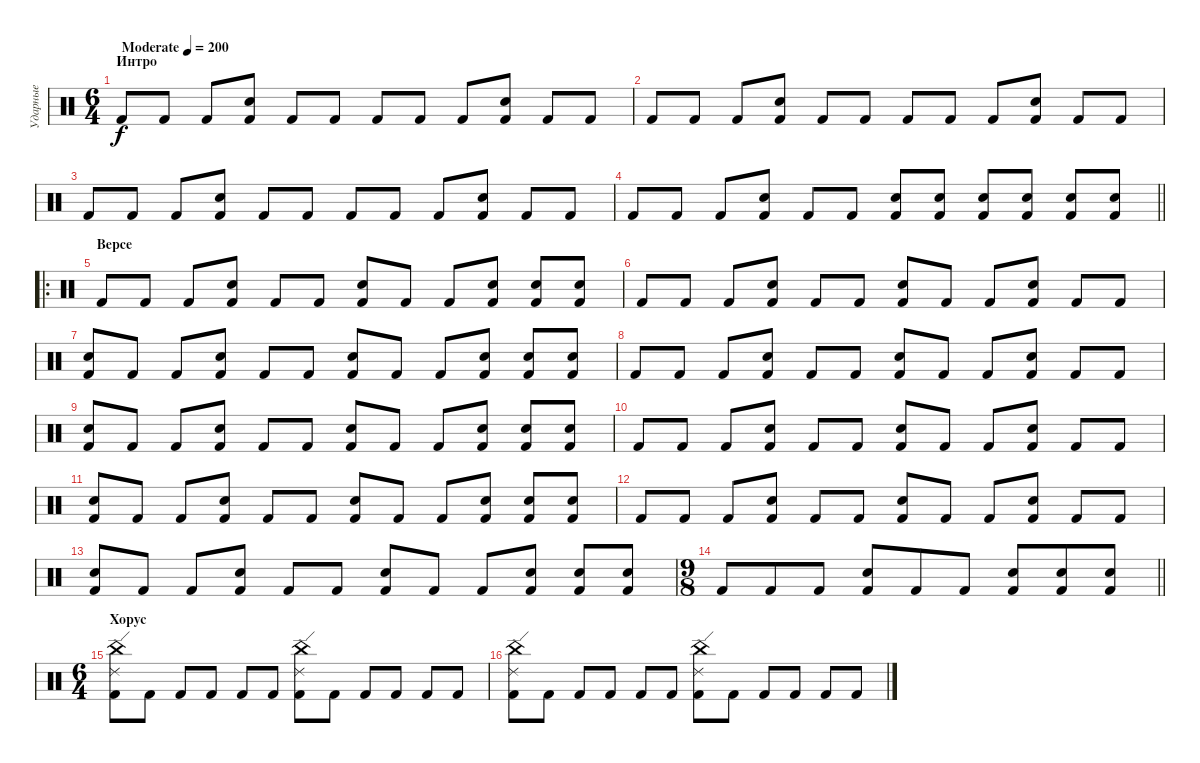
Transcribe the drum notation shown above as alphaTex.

\track ("Ударные" "Ударные") {instrument percussion}
\staff {score}
\articulation defaults
\ts (6 4)
\section ("" "Интро")
\tempo (200 "Moderate")
\clef neutral
\ks c "Kick (hit) 2".8{dy f} "Kick (hit) 2".8 "Kick (hit) 2".8
("Electric Snare (hit)" "Kick (hit) 2").8 "Kick (hit) 2".8 "Kick (hit) 2".8 "Kick (hit) 2".8 "Kick (hit) 2".8 "Kick (hit) 2".8 ("Electric Snare (hit)" "Kick (hit) 2").8 "Kick (hit) 2".8 "Kick (hit) 2".8 |
"Kick (hit) 2".8 "Kick (hit) 2".8 "Kick (hit) 2".8 ("Electric Snare (hit)" "Kick (hit) 2").8 "Kick (hit) 2".8 "Kick (hit) 2".8 "Kick (hit) 2".8 "Kick (hit) 2".8 "Kick (hit) 2".8 ("Electric Snare (hit)" "Kick (hit) 2").8 "Kick (hit) 2".8 "Kick (hit) 2".8 |
"Kick (hit) 2".8 "Kick (hit) 2".8 "Kick (hit) 2".8 ("Electric Snare (hit)" "Kick (hit) 2").8 "Kick (hit) 2".8 "Kick (hit) 2".8 "Kick (hit) 2".8 "Kick (hit) 2".8 "Kick (hit) 2".8 ("Electric Snare (hit)" "Kick (hit) 2").8 "Kick (hit) 2".8 "Kick (hit) 2".8 |
\barLineRight lightlight "Kick (hit) 2".8 "Kick (hit) 2".8 "Kick (hit) 2".8
("Electric Snare (hit)" "Kick (hit) 2").8 "Kick (hit) 2".8 "Kick (hit) 2".8 ("Electric Snare (hit)" "Kick (hit) 2").8 ("Electric Snare (hit)" "Kick (hit) 2").8 ("Electric Snare (hit)" "Kick (hit) 2").8 ("Electric Snare (hit)" "Kick (hit) 2").8 ("Electric Snare (hit)" "Kick (hit) 2").8 ("Electric Snare (hit)" "Kick (hit) 2").8 |
\ro
\section ("" "Версе")
"Kick (hit) 2".8 "Kick (hit) 2".8 "Kick (hit) 2".8 ("Electric Snare (hit)" "Kick (hit) 2").8 "Kick (hit) 2".8 "Kick (hit) 2".8 ("Electric Snare (hit)" "Kick (hit) 2").8 "Kick (hit) 2".8 "Kick (hit) 2".8 ("Electric Snare (hit)" "Kick (hit) 2").8 ("Electric Snare (hit)" "Kick (hit) 2").8 ("Electric Snare (hit)" "Kick (hit) 2").8 |
"Kick (hit) 2".8 "Kick (hit) 2".8 "Kick (hit) 2".8 ("Electric Snare (hit)" "Kick (hit) 2").8 "Kick (hit) 2".8 "Kick (hit) 2".8 ("Electric Snare (hit)" "Kick (hit) 2").8 "Kick (hit) 2".8 "Kick (hit) 2".8 ("Electric Snare (hit)" "Kick (hit) 2").8 "Kick (hit) 2".8 "Kick (hit) 2".8 |
("Electric Snare (hit)" "Kick (hit) 2").8 "Kick (hit) 2".8 "Kick (hit) 2".8 ("Electric Snare (hit)" "Kick (hit) 2").8 "Kick (hit) 2".8 "Kick (hit) 2".8 ("Electric Snare (hit)" "Kick (hit) 2").8 "Kick (hit) 2".8 "Kick (hit) 2".8 ("Electric Snare (hit)" "Kick (hit) 2").8 ("Electric Snare (hit)" "Kick (hit) 2").8 ("Electric Snare (hit)" "Kick (hit) 2").8 |
"Kick (hit) 2".8 "Kick (hit) 2".8 "Kick (hit) 2".8 ("Electric Snare (hit)" "Kick (hit) 2").8 "Kick (hit) 2".8 "Kick (hit) 2".8 ("Electric Snare (hit)" "Kick (hit) 2").8 "Kick (hit) 2".8 "Kick (hit) 2".8 ("Electric Snare (hit)" "Kick (hit) 2").8 "Kick (hit) 2".8 "Kick (hit) 2".8 |
("Electric Snare (hit)" "Kick (hit) 2").8 "Kick (hit) 2".8 "Kick (hit) 2".8 ("Electric Snare (hit)" "Kick (hit) 2").8 "Kick (hit) 2".8 "Kick (hit) 2".8 ("Electric Snare (hit)" "Kick (hit) 2").8 "Kick (hit) 2".8 "Kick (hit) 2".8 ("Electric Snare (hit)" "Kick (hit) 2").8 ("Electric Snare (hit)" "Kick (hit) 2").8 ("Electric Snare (hit)" "Kick (hit) 2").8 |
"Kick (hit) 2".8 "Kick (hit) 2".8 "Kick (hit) 2".8 ("Electric Snare (hit)" "Kick (hit) 2").8 "Kick (hit) 2".8 "Kick (hit) 2".8 ("Electric Snare (hit)" "Kick (hit) 2").8 "Kick (hit) 2".8 "Kick (hit) 2".8 ("Electric Snare (hit)" "Kick (hit) 2").8 "Kick (hit) 2".8 "Kick (hit) 2".8 |
("Electric Snare (hit)" "Kick (hit) 2").8 "Kick (hit) 2".8 "Kick (hit) 2".8 ("Electric Snare (hit)" "Kick (hit) 2").8 "Kick (hit) 2".8 "Kick (hit) 2".8 ("Electric Snare (hit)" "Kick (hit) 2").8 "Kick (hit) 2".8 "Kick (hit) 2".8 ("Electric Snare (hit)" "Kick (hit) 2").8 ("Electric Snare (hit)" "Kick (hit) 2").8 ("Electric Snare (hit)" "Kick (hit) 2").8 |
"Kick (hit) 2".8 "Kick (hit) 2".8 "Kick (hit) 2".8 ("Electric Snare (hit)" "Kick (hit) 2").8 "Kick (hit) 2".8 "Kick (hit) 2".8 ("Electric Snare (hit)" "Kick (hit) 2").8 "Kick (hit) 2".8 "Kick (hit) 2".8 ("Electric Snare (hit)" "Kick (hit) 2").8 "Kick (hit) 2".8 "Kick (hit) 2".8 |
("Electric Snare (hit)" "Kick (hit) 2").8 "Kick (hit) 2".8 "Kick (hit) 2".8 ("Electric Snare (hit)" "Kick (hit) 2").8 "Kick (hit) 2".8 "Kick (hit) 2".8 ("Electric Snare (hit)" "Kick (hit) 2").8 "Kick (hit) 2".8 "Kick (hit) 2".8 ("Electric Snare (hit)" "Kick (hit) 2").8 ("Electric Snare (hit)" "Kick (hit) 2").8 ("Electric Snare (hit)" "Kick (hit) 2").8 |
\ts (9 8)
\barLineRight lightlight "Kick (hit) 2".8 "Kick (hit) 2".8 "Kick (hit) 2".8
("Electric Snare (hit)" "Kick (hit) 2").8 "Kick (hit) 2".8 "Kick (hit) 2".8 ("Electric Snare (hit)" "Kick (hit) 2").8 ("Electric Snare (hit)" "Kick (hit) 2").8 ("Electric Snare (hit)" "Kick (hit) 2").8 |
\ts (6 4)
\section ("" "Хорус")
("Ride (edge) 2" "China (hit)" "Kick (hit) 2").8 "Kick (hit) 2".8 "Kick (hit) 2".8 "Kick (hit) 2".8 "Kick (hit) 2".8 "Kick (hit) 2".8 ("Ride (edge) 2" "China (hit)" "Kick (hit) 2").8 "Kick (hit) 2".8 "Kick (hit) 2".8 "Kick (hit) 2".8 "Kick (hit) 2".8 "Kick (hit) 2".8 |
("Ride (edge) 2" "China (hit)" "Kick (hit) 2").8 "Kick (hit) 2".8 "Kick (hit) 2".8 "Kick (hit) 2".8 "Kick (hit) 2".8 "Kick (hit) 2".8 ("Ride (edge) 2" "China (hit)" "Kick (hit) 2").8 "Kick (hit) 2".8 "Kick (hit) 2".8 "Kick (hit) 2".8 "Kick (hit) 2".8 "Kick (hit) 2".8
